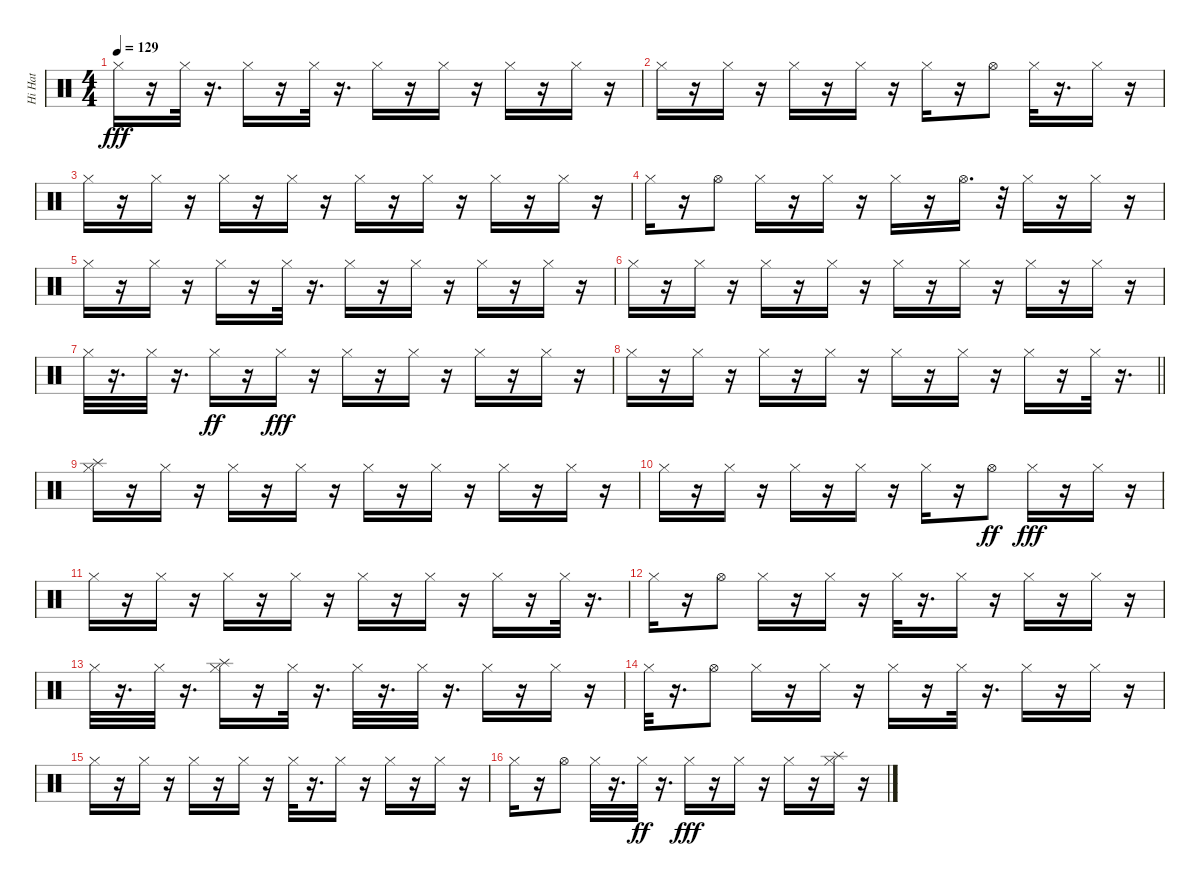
\track ("Hi Hat" "Hi Hat") {instrument percussion}
\staff {score}
\articulation defaults
\ts (4 4)
\tempo 129
\clef neutral
\ks c "Hi-Hat (closed)".16{dy fff}
r.16 "Hi-Hat (closed)".32 r.16{d} "Hi-Hat (closed)".16 r.16 "Hi-Hat (closed)".32 r.16{d} "Hi-Hat (closed)".16 r.16 "Hi-Hat (closed)".16 r.16 "Hi-Hat (closed)".16 r.16 "Hi-Hat (closed)".16 r.16 |
"Hi-Hat (closed)".16 r.16 "Hi-Hat (closed)".16 r.16 "Hi-Hat (closed)".16 r.16 "Hi-Hat (closed)".16 r.16 "Hi-Hat (closed)".16 r.16 "Hi-Hat (open)".8 "Hi-Hat (closed)".32 r.16{d} "Hi-Hat (closed)".16 r.16 |
"Hi-Hat (closed)".16 r.16 "Hi-Hat (closed)".16 r.16 "Hi-Hat (closed)".16 r.16 "Hi-Hat (closed)".16 r.16 "Hi-Hat (closed)".16 r.16 "Hi-Hat (closed)".16 r.16 "Hi-Hat (closed)".16 r.16 "Hi-Hat (closed)".16 r.16 |
"Hi-Hat (closed)".16 r.16 "Hi-Hat (open)".8 "Hi-Hat (closed)".16 r.16 "Hi-Hat (closed)".16 r.16 "Hi-Hat (closed)".16 r.16 "Hi-Hat (open)".16{d} r.32 "Hi-Hat (closed)".16 r.16 "Hi-Hat (closed)".16 r.16 |
"Hi-Hat (closed)".16 r.16 "Hi-Hat (closed)".16 r.16 "Hi-Hat (closed)".16 r.16 "Hi-Hat (closed)".32 r.16{d} "Hi-Hat (closed)".16 r.16 "Hi-Hat (closed)".16 r.16 "Hi-Hat (closed)".16 r.16 "Hi-Hat (closed)".16 r.16 |
"Hi-Hat (closed)".16 r.16 "Hi-Hat (closed)".16 r.16 "Hi-Hat (closed)".16 r.16 "Hi-Hat (closed)".16 r.16 "Hi-Hat (closed)".16 r.16 "Hi-Hat (closed)".16 r.16 "Hi-Hat (closed)".16 r.16 "Hi-Hat (closed)".16 r.16 |
"Hi-Hat (closed)".32 r.16{d} "Hi-Hat (closed)".32 r.16{d} "Hi-Hat (closed)".16{dy ff} r.16 "Hi-Hat (closed)".16{dy fff} r.16 "Hi-Hat (closed)".16 r.16 "Hi-Hat (closed)".16 r.16 "Hi-Hat (closed)".16 r.16 "Hi-Hat (closed)".16 r.16 |
\barLineRight lightlight "Hi-Hat (closed)".16
r.16 "Hi-Hat (closed)".16 r.16 "Hi-Hat (closed)".16 r.16 "Hi-Hat (closed)".16 r.16 "Hi-Hat (closed)".16 r.16 "Hi-Hat (closed)".16 r.16 "Hi-Hat (closed)".16 r.16 "Hi-Hat (closed)".32 r.16{d} |
("Splash (hit)" "Hi-Hat (closed)").16 r.16 "Hi-Hat (closed)".16 r.16 "Hi-Hat (closed)".16 r.16 "Hi-Hat (closed)".16 r.16 "Hi-Hat (closed)".16 r.16 "Hi-Hat (closed)".16 r.16 "Hi-Hat (closed)".16 r.16 "Hi-Hat (closed)".16 r.16 |
"Hi-Hat (closed)".16 r.16 "Hi-Hat (closed)".16 r.16 "Hi-Hat (closed)".16 r.16 "Hi-Hat (closed)".16 r.16 "Hi-Hat (closed)".16 r.16 "Hi-Hat (open)".8{dy ff} "Hi-Hat (closed)".16{dy fff} r.16 "Hi-Hat (closed)".16 r.16 |
"Hi-Hat (closed)".16 r.16 "Hi-Hat (closed)".16 r.16 "Hi-Hat (closed)".16 r.16 "Hi-Hat (closed)".16 r.16 "Hi-Hat (closed)".16 r.16 "Hi-Hat (closed)".16 r.16 "Hi-Hat (closed)".16 r.16 "Hi-Hat (closed)".32 r.16{d} |
"Hi-Hat (closed)".16 r.16 "Hi-Hat (open)".8 "Hi-Hat (closed)".16 r.16 "Hi-Hat (closed)".16 r.16 "Hi-Hat (closed)".32 r.16{d} "Hi-Hat (closed)".16 r.16 "Hi-Hat (closed)".16 r.16 "Hi-Hat (closed)".16 r.16 |
"Hi-Hat (closed)".32 r.16{d} "Hi-Hat (closed)".32 r.16{d} ("Hi-Hat (closed)" "Splash (hit)").16 r.16 "Hi-Hat (closed)".32 r.16{d} "Hi-Hat (closed)".32 r.16{d} "Hi-Hat (closed)".32 r.16{d} "Hi-Hat (closed)".16 r.16 "Hi-Hat (closed)".16 r.16 |
"Hi-Hat (closed)".32 r.16{d} "Hi-Hat (open)".8 "Hi-Hat (closed)".16 r.16 "Hi-Hat (closed)".16 r.16 "Hi-Hat (closed)".16 r.16 "Hi-Hat (closed)".32 r.16{d} "Hi-Hat (closed)".16 r.16 "Hi-Hat (closed)".16 r.16 |
"Hi-Hat (closed)".16 r.16 "Hi-Hat (closed)".16 r.16 "Hi-Hat (closed)".16 r.16 "Hi-Hat (closed)".16 r.16 "Hi-Hat (closed)".32 r.16{d} "Hi-Hat (closed)".16 r.16 "Hi-Hat (closed)".16 r.16 "Hi-Hat (closed)".16 r.16 |
"Hi-Hat (closed)".16 r.16 "Hi-Hat (open)".8 "Hi-Hat (closed)".32 r.16{d} "Hi-Hat (closed)".32{dy ff} r.16{d} "Hi-Hat (closed)".16{dy fff} r.16 "Hi-Hat (closed)".16 r.16 "Hi-Hat (closed)".16 r.16 ("Hi-Hat (closed)" "Splash (hit)").16 r.16
